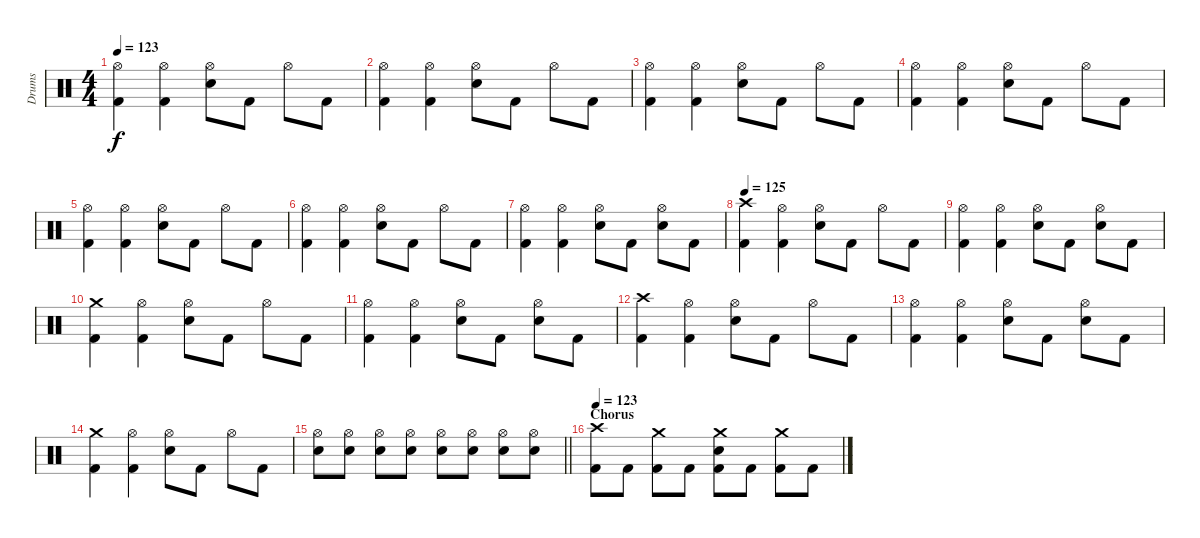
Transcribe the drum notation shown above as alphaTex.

\track ("Drums" "Drums") {instrument percussion}
\staff {score}
\articulation defaults
\ts (4 4)
\tempo 123
\clef neutral
\ks c
("Hi-Hat (open)" "Kick (hit) 2").4{dy f} ("Hi-Hat (open)" "Kick (hit) 2").4 ("Hi-Hat (open)" "Snare (hit) 2").8 "Kick (hit) 2".8 "Hi-Hat (open)".8 "Kick (hit) 2".8 |
("Hi-Hat (open)" "Kick (hit) 2").4 ("Hi-Hat (open)" "Kick (hit) 2").4 ("Hi-Hat (open)" "Snare (hit) 2").8 "Kick (hit) 2".8 "Hi-Hat (open)".8 "Kick (hit) 2".8 |
("Hi-Hat (open)" "Kick (hit) 2").4 ("Hi-Hat (open)" "Kick (hit) 2").4 ("Hi-Hat (open)" "Snare (hit) 2").8 "Kick (hit) 2".8 "Hi-Hat (open)".8 "Kick (hit) 2".8 |
("Hi-Hat (open)" "Kick (hit) 2").4 ("Hi-Hat (open)" "Kick (hit) 2").4 ("Hi-Hat (open)" "Snare (hit) 2").8 "Kick (hit) 2".8 "Hi-Hat (open)".8 "Kick (hit) 2".8 |
("Hi-Hat (open)" "Kick (hit) 2").4 ("Hi-Hat (open)" "Kick (hit) 2").4 ("Hi-Hat (open)" "Snare (hit) 2").8 "Kick (hit) 2".8 "Hi-Hat (open)".8 "Kick (hit) 2".8 |
("Hi-Hat (open)" "Kick (hit) 2").4 ("Hi-Hat (open)" "Kick (hit) 2").4 ("Hi-Hat (open)" "Snare (hit) 2").8 "Kick (hit) 2".8 "Hi-Hat (open)".8 "Kick (hit) 2".8 |
("Hi-Hat (open)" "Kick (hit) 2").4 ("Hi-Hat (open)" "Kick (hit) 2").4 ("Hi-Hat (open)" "Snare (hit) 2").8 "Kick (hit) 2".8 ("Hi-Hat (open)" "Snare (hit) 2").8 "Kick (hit) 2".8 |
\tempo 125
("Crash high (hit)" "Kick (hit) 2").4 ("Hi-Hat (open)" "Kick (hit) 2").4 ("Hi-Hat (open)" "Snare (hit) 2").8 "Kick (hit) 2".8 "Hi-Hat (open)".8 "Kick (hit) 2".8 |
("Hi-Hat (open)" "Kick (hit) 2").4 ("Hi-Hat (open)" "Kick (hit) 2").4 ("Hi-Hat (open)" "Snare (hit) 2").8 "Kick (hit) 2".8 ("Hi-Hat (open)" "Snare (hit) 2").8 "Kick (hit) 2".8 |
("Crash medium (hit)" "Kick (hit) 2").4 ("Hi-Hat (open)" "Kick (hit) 2").4 ("Hi-Hat (open)" "Snare (hit) 2").8 "Kick (hit) 2".8 "Hi-Hat (open)".8 "Kick (hit) 2".8 |
("Hi-Hat (open)" "Kick (hit) 2").4 ("Hi-Hat (open)" "Kick (hit) 2").4 ("Hi-Hat (open)" "Snare (hit) 2").8 "Kick (hit) 2".8 ("Hi-Hat (open)" "Snare (hit) 2").8 "Kick (hit) 2".8 |
("Crash high (hit)" "Kick (hit) 2").4 ("Hi-Hat (open)" "Kick (hit) 2").4 ("Hi-Hat (open)" "Snare (hit) 2").8 "Kick (hit) 2".8 "Hi-Hat (open)".8 "Kick (hit) 2".8 |
("Hi-Hat (open)" "Kick (hit) 2").4 ("Hi-Hat (open)" "Kick (hit) 2").4 ("Hi-Hat (open)" "Snare (hit) 2").8 "Kick (hit) 2".8 ("Hi-Hat (open)" "Snare (hit) 2").8 "Kick (hit) 2".8 |
("Crash medium (hit)" "Kick (hit) 2").4 ("Hi-Hat (open)" "Kick (hit) 2").4 ("Hi-Hat (open)" "Snare (hit) 2").8 "Kick (hit) 2".8 "Hi-Hat (open)".8 "Kick (hit) 2".8 |
\barLineRight lightlight
("Hi-Hat (open)" "Snare (hit) 2").8 ("Hi-Hat (open)" "Snare (hit) 2").8 ("Hi-Hat (open)" "Snare (hit) 2").8 ("Hi-Hat (open)" "Snare (hit) 2").8 ("Hi-Hat (open)" "Snare (hit) 2").8 ("Hi-Hat (open)" "Snare (hit) 2").8 ("Hi-Hat (open)" "Snare (hit) 2").8 ("Hi-Hat (open)" "Snare (hit) 2").8 |
\section ("" "Chorus")
\tempo 123
("Crash high (hit)" "Kick (hit) 2").8 "Kick (hit) 2".8 ("Crash medium (hit)" "Kick (hit) 2").8 "Kick (hit) 2".8 ("Crash medium (hit)" "Snare (hit) 2" "Kick (hit) 2").8 "Kick (hit) 2".8 ("Crash medium (hit)" "Kick (hit) 2").8 "Kick (hit) 2".8
